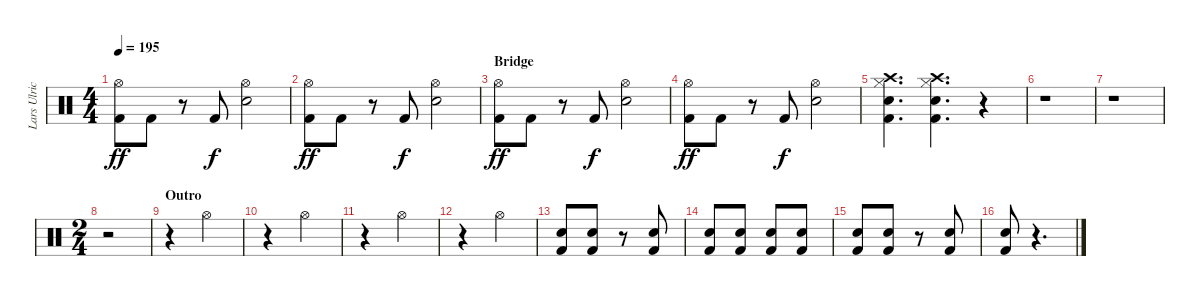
\track ("Lars Ulrich" "Lars Ulric") {instrument percussion}
\staff {score}
\articulation defaults
\ts (4 4)
\tempo 195
\clef neutral
\ks c
("Kick (hit) 2" "Hi-Hat (open)").8{dy ff} "Kick (hit) 2".8 r.8 "Kick (hit) 2".8{dy f} ("Snare (hit) 2" "Hi-Hat (open)").2 |
("Kick (hit) 2" "Hi-Hat (open)").8{dy ff} "Kick (hit) 2".8 r.8 "Kick (hit) 2".8{dy f} ("Snare (hit) 2" "Hi-Hat (open)").2 |
\section ("" "Bridge")
("Kick (hit) 2" "Hi-Hat (open)").8{dy ff} "Kick (hit) 2".8 r.8 "Kick (hit) 2".8{dy f} ("Snare (hit) 2" "Hi-Hat (open)").2 |
("Kick (hit) 2" "Hi-Hat (open)").8{dy ff} "Kick (hit) 2".8 r.8 "Kick (hit) 2".8{dy f} ("Snare (hit) 2" "Hi-Hat (open)").2 |
("Kick (hit) 2" "Snare (hit) 2" "Hi-Hat (closed)" "Crash high (hit)").4{d} ("Kick (hit) 2" "Snare (hit) 2" "Hi-Hat (closed)" "Crash high (hit)").4{d} r.4 |
r.1 |
r.1 |
\ts (2 4)
r.2 |
\section ("" "Outro")
r.4 "Hi-Hat (open)".4 |
r.4 "Hi-Hat (open)".4 |
r.4 "Hi-Hat (open)".4 |
r.4 "Hi-Hat (open)".4 |
("Kick (hit) 2" "Snare (hit) 2").8 ("Kick (hit) 2" "Snare (hit) 2").8 r.8 ("Kick (hit) 2" "Snare (hit) 2").8 |
("Kick (hit) 2" "Snare (hit) 2").8 ("Kick (hit) 2" "Snare (hit) 2").8 ("Kick (hit) 2" "Snare (hit) 2").8 ("Kick (hit) 2" "Snare (hit) 2").8 |
("Kick (hit) 2" "Snare (hit) 2").8 ("Kick (hit) 2" "Snare (hit) 2").8 r.8 ("Kick (hit) 2" "Snare (hit) 2").8 |
("Kick (hit) 2" "Snare (hit) 2").8 r.4{d}
